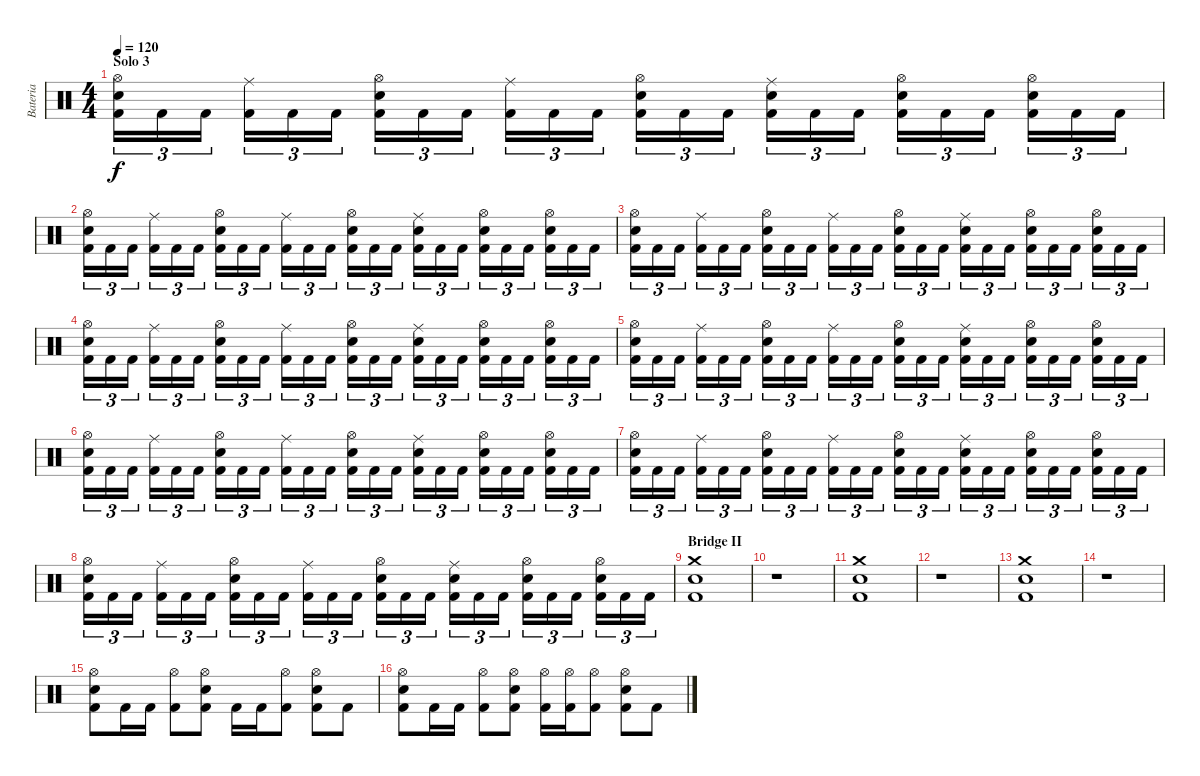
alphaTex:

\track ("Bateria" "Bateria") {instrument percussion}
\staff {score}
\articulation defaults
\ts (4 4)
\section ("" "Solo 3")
\tempo 120
\clef neutral
\ks c
("Hi-Hat (open)" "Snare (hit) 2" "Kick (hit) 2").16{tu (3 2) dy f} "Kick (hit) 2".16{tu (3 2)} "Kick (hit) 2".16{tu (3 2)} ("Ride (middle)" "Kick (hit) 2").16{tu (3 2)} "Kick (hit) 2".16{tu (3 2)} "Kick (hit) 2".16{tu (3 2)} ("Hi-Hat (open)" "Electric Snare (hit)" "Kick (hit) 2").16{tu (3 2)} "Kick (hit) 2".16{tu (3 2)} "Kick (hit) 2".16{tu (3 2)} ("Ride (middle)" "Kick (hit) 2").16{tu (3 2)} "Kick (hit) 2".16{tu (3 2)} "Kick (hit) 2".16{tu (3 2)} ("Hi-Hat (open)" "Snare (hit) 2" "Kick (hit) 2").16{tu (3 2)} "Kick (hit) 2".16{tu (3 2)} "Kick (hit) 2".16{tu (3 2)} ("Ride (middle)" "Snare (hit) 2" "Kick (hit) 2").16{tu (3 2)} "Kick (hit) 2".16{tu (3 2)} "Kick (hit) 2".16{tu (3 2)} ("Hi-Hat (open)" "Snare (hit) 2" "Kick (hit) 2").16{tu (3 2)} "Kick (hit) 2".16{tu (3 2)} "Kick (hit) 2".16{tu (3 2)} ("Hi-Hat (open)" "Snare (hit) 2" "Kick (hit) 2").16{tu (3 2)} "Kick (hit) 2".16{tu (3 2)} "Kick (hit) 2".16{tu (3 2)} |
("Hi-Hat (open)" "Snare (hit) 2" "Kick (hit) 2").16{tu (3 2)} "Kick (hit) 2".16{tu (3 2)} "Kick (hit) 2".16{tu (3 2)} ("Ride (middle)" "Kick (hit) 2").16{tu (3 2)} "Kick (hit) 2".16{tu (3 2)} "Kick (hit) 2".16{tu (3 2)} ("Hi-Hat (open)" "Electric Snare (hit)" "Kick (hit) 2").16{tu (3 2)} "Kick (hit) 2".16{tu (3 2)} "Kick (hit) 2".16{tu (3 2)} ("Ride (middle)" "Kick (hit) 2").16{tu (3 2)} "Kick (hit) 2".16{tu (3 2)} "Kick (hit) 2".16{tu (3 2)} ("Hi-Hat (open)" "Snare (hit) 2" "Kick (hit) 2").16{tu (3 2)} "Kick (hit) 2".16{tu (3 2)} "Kick (hit) 2".16{tu (3 2)} ("Ride (middle)" "Snare (hit) 2" "Kick (hit) 2").16{tu (3 2)} "Kick (hit) 2".16{tu (3 2)} "Kick (hit) 2".16{tu (3 2)} ("Hi-Hat (open)" "Snare (hit) 2" "Kick (hit) 2").16{tu (3 2)} "Kick (hit) 2".16{tu (3 2)} "Kick (hit) 2".16{tu (3 2)} ("Hi-Hat (open)" "Snare (hit) 2" "Kick (hit) 2").16{tu (3 2)} "Kick (hit) 2".16{tu (3 2)} "Kick (hit) 2".16{tu (3 2)} |
("Hi-Hat (open)" "Snare (hit) 2" "Kick (hit) 2").16{tu (3 2)} "Kick (hit) 2".16{tu (3 2)} "Kick (hit) 2".16{tu (3 2)} ("Ride (middle)" "Kick (hit) 2").16{tu (3 2)} "Kick (hit) 2".16{tu (3 2)} "Kick (hit) 2".16{tu (3 2)} ("Hi-Hat (open)" "Electric Snare (hit)" "Kick (hit) 2").16{tu (3 2)} "Kick (hit) 2".16{tu (3 2)} "Kick (hit) 2".16{tu (3 2)} ("Ride (middle)" "Kick (hit) 2").16{tu (3 2)} "Kick (hit) 2".16{tu (3 2)} "Kick (hit) 2".16{tu (3 2)} ("Hi-Hat (open)" "Snare (hit) 2" "Kick (hit) 2").16{tu (3 2)} "Kick (hit) 2".16{tu (3 2)} "Kick (hit) 2".16{tu (3 2)} ("Ride (middle)" "Snare (hit) 2" "Kick (hit) 2").16{tu (3 2)} "Kick (hit) 2".16{tu (3 2)} "Kick (hit) 2".16{tu (3 2)} ("Hi-Hat (open)" "Snare (hit) 2" "Kick (hit) 2").16{tu (3 2)} "Kick (hit) 2".16{tu (3 2)} "Kick (hit) 2".16{tu (3 2)} ("Hi-Hat (open)" "Snare (hit) 2" "Kick (hit) 2").16{tu (3 2)} "Kick (hit) 2".16{tu (3 2)} "Kick (hit) 2".16{tu (3 2)} |
("Hi-Hat (open)" "Snare (hit) 2" "Kick (hit) 2").16{tu (3 2)} "Kick (hit) 2".16{tu (3 2)} "Kick (hit) 2".16{tu (3 2)} ("Ride (middle)" "Kick (hit) 2").16{tu (3 2)} "Kick (hit) 2".16{tu (3 2)} "Kick (hit) 2".16{tu (3 2)} ("Hi-Hat (open)" "Electric Snare (hit)" "Kick (hit) 2").16{tu (3 2)} "Kick (hit) 2".16{tu (3 2)} "Kick (hit) 2".16{tu (3 2)} ("Ride (middle)" "Kick (hit) 2").16{tu (3 2)} "Kick (hit) 2".16{tu (3 2)} "Kick (hit) 2".16{tu (3 2)} ("Hi-Hat (open)" "Snare (hit) 2" "Kick (hit) 2").16{tu (3 2)} "Kick (hit) 2".16{tu (3 2)} "Kick (hit) 2".16{tu (3 2)} ("Ride (middle)" "Snare (hit) 2" "Kick (hit) 2").16{tu (3 2)} "Kick (hit) 2".16{tu (3 2)} "Kick (hit) 2".16{tu (3 2)} ("Hi-Hat (open)" "Snare (hit) 2" "Kick (hit) 2").16{tu (3 2)} "Kick (hit) 2".16{tu (3 2)} "Kick (hit) 2".16{tu (3 2)} ("Hi-Hat (open)" "Snare (hit) 2" "Kick (hit) 2").16{tu (3 2)} "Kick (hit) 2".16{tu (3 2)} "Kick (hit) 2".16{tu (3 2)} |
("Hi-Hat (open)" "Snare (hit) 2" "Kick (hit) 2").16{tu (3 2)} "Kick (hit) 2".16{tu (3 2)} "Kick (hit) 2".16{tu (3 2)} ("Ride (middle)" "Kick (hit) 2").16{tu (3 2)} "Kick (hit) 2".16{tu (3 2)} "Kick (hit) 2".16{tu (3 2)} ("Hi-Hat (open)" "Electric Snare (hit)" "Kick (hit) 2").16{tu (3 2)} "Kick (hit) 2".16{tu (3 2)} "Kick (hit) 2".16{tu (3 2)} ("Ride (middle)" "Kick (hit) 2").16{tu (3 2)} "Kick (hit) 2".16{tu (3 2)} "Kick (hit) 2".16{tu (3 2)} ("Hi-Hat (open)" "Snare (hit) 2" "Kick (hit) 2").16{tu (3 2)} "Kick (hit) 2".16{tu (3 2)} "Kick (hit) 2".16{tu (3 2)} ("Ride (middle)" "Snare (hit) 2" "Kick (hit) 2").16{tu (3 2)} "Kick (hit) 2".16{tu (3 2)} "Kick (hit) 2".16{tu (3 2)} ("Hi-Hat (open)" "Snare (hit) 2" "Kick (hit) 2").16{tu (3 2)} "Kick (hit) 2".16{tu (3 2)} "Kick (hit) 2".16{tu (3 2)} ("Hi-Hat (open)" "Snare (hit) 2" "Kick (hit) 2").16{tu (3 2)} "Kick (hit) 2".16{tu (3 2)} "Kick (hit) 2".16{tu (3 2)} |
("Hi-Hat (open)" "Snare (hit) 2" "Kick (hit) 2").16{tu (3 2)} "Kick (hit) 2".16{tu (3 2)} "Kick (hit) 2".16{tu (3 2)} ("Ride (middle)" "Kick (hit) 2").16{tu (3 2)} "Kick (hit) 2".16{tu (3 2)} "Kick (hit) 2".16{tu (3 2)} ("Hi-Hat (open)" "Electric Snare (hit)" "Kick (hit) 2").16{tu (3 2)} "Kick (hit) 2".16{tu (3 2)} "Kick (hit) 2".16{tu (3 2)} ("Ride (middle)" "Kick (hit) 2").16{tu (3 2)} "Kick (hit) 2".16{tu (3 2)} "Kick (hit) 2".16{tu (3 2)} ("Hi-Hat (open)" "Snare (hit) 2" "Kick (hit) 2").16{tu (3 2)} "Kick (hit) 2".16{tu (3 2)} "Kick (hit) 2".16{tu (3 2)} ("Ride (middle)" "Snare (hit) 2" "Kick (hit) 2").16{tu (3 2)} "Kick (hit) 2".16{tu (3 2)} "Kick (hit) 2".16{tu (3 2)} ("Hi-Hat (open)" "Snare (hit) 2" "Kick (hit) 2").16{tu (3 2)} "Kick (hit) 2".16{tu (3 2)} "Kick (hit) 2".16{tu (3 2)} ("Hi-Hat (open)" "Snare (hit) 2" "Kick (hit) 2").16{tu (3 2)} "Kick (hit) 2".16{tu (3 2)} "Kick (hit) 2".16{tu (3 2)} |
("Hi-Hat (open)" "Snare (hit) 2" "Kick (hit) 2").16{tu (3 2)} "Kick (hit) 2".16{tu (3 2)} "Kick (hit) 2".16{tu (3 2)} ("Ride (middle)" "Kick (hit) 2").16{tu (3 2)} "Kick (hit) 2".16{tu (3 2)} "Kick (hit) 2".16{tu (3 2)} ("Hi-Hat (open)" "Electric Snare (hit)" "Kick (hit) 2").16{tu (3 2)} "Kick (hit) 2".16{tu (3 2)} "Kick (hit) 2".16{tu (3 2)} ("Ride (middle)" "Kick (hit) 2").16{tu (3 2)} "Kick (hit) 2".16{tu (3 2)} "Kick (hit) 2".16{tu (3 2)} ("Hi-Hat (open)" "Snare (hit) 2" "Kick (hit) 2").16{tu (3 2)} "Kick (hit) 2".16{tu (3 2)} "Kick (hit) 2".16{tu (3 2)} ("Ride (middle)" "Snare (hit) 2" "Kick (hit) 2").16{tu (3 2)} "Kick (hit) 2".16{tu (3 2)} "Kick (hit) 2".16{tu (3 2)} ("Hi-Hat (open)" "Snare (hit) 2" "Kick (hit) 2").16{tu (3 2)} "Kick (hit) 2".16{tu (3 2)} "Kick (hit) 2".16{tu (3 2)} ("Hi-Hat (open)" "Snare (hit) 2" "Kick (hit) 2").16{tu (3 2)} "Kick (hit) 2".16{tu (3 2)} "Kick (hit) 2".16{tu (3 2)} |
("Hi-Hat (open)" "Snare (hit) 2" "Kick (hit) 2").16{tu (3 2)} "Kick (hit) 2".16{tu (3 2)} "Kick (hit) 2".16{tu (3 2)} ("Ride (middle)" "Kick (hit) 2").16{tu (3 2)} "Kick (hit) 2".16{tu (3 2)} "Kick (hit) 2".16{tu (3 2)} ("Hi-Hat (open)" "Electric Snare (hit)" "Kick (hit) 2").16{tu (3 2)} "Kick (hit) 2".16{tu (3 2)} "Kick (hit) 2".16{tu (3 2)} ("Ride (middle)" "Kick (hit) 2").16{tu (3 2)} "Kick (hit) 2".16{tu (3 2)} "Kick (hit) 2".16{tu (3 2)} ("Hi-Hat (open)" "Snare (hit) 2" "Kick (hit) 2").16{tu (3 2)} "Kick (hit) 2".16{tu (3 2)} "Kick (hit) 2".16{tu (3 2)} ("Ride (middle)" "Snare (hit) 2" "Kick (hit) 2").16{tu (3 2)} "Kick (hit) 2".16{tu (3 2)} "Kick (hit) 2".16{tu (3 2)} ("Hi-Hat (open)" "Snare (hit) 2" "Kick (hit) 2").16{tu (3 2)} "Kick (hit) 2".16{tu (3 2)} "Kick (hit) 2".16{tu (3 2)} ("Hi-Hat (open)" "Snare (hit) 2" "Kick (hit) 2").16{tu (3 2)} "Kick (hit) 2".16{tu (3 2)} "Kick (hit) 2".16{tu (3 2)} |
\section ("" "Bridge II")
("Crash medium (hit)" "Snare (hit) 2" "Kick (hit) 2").1 |
r.1 |
("Crash medium (hit)" "Snare (hit) 2" "Kick (hit) 2").1 |
r.1 |
("Crash medium (hit)" "Snare (hit) 2" "Kick (hit) 2").1 |
r.1 |
("Hi-Hat (open)" "Snare (hit) 2" "Kick (hit) 2").8 "Kick (hit) 2".16 "Kick (hit) 2".16 ("Hi-Hat (open)" "Kick (hit) 2").8 ("Hi-Hat (open)" "Snare (hit) 2" "Kick (hit) 2").8 "Kick (hit) 2".16 "Kick (hit) 2".16 ("Hi-Hat (open)" "Kick (hit) 2").8 ("Hi-Hat (open)" "Snare (hit) 2" "Kick (hit) 2").8 "Kick (hit) 2".8 |
("Hi-Hat (open)" "Snare (hit) 2" "Kick (hit) 2").8 "Kick (hit) 2".16 "Kick (hit) 2".16 ("Hi-Hat (open)" "Kick (hit) 2").8 ("Hi-Hat (open)" "Snare (hit) 2" "Kick (hit) 2").8 ("Hi-Hat (open)" "Kick (hit) 2").16 ("Hi-Hat (open)" "Kick (hit) 2").16 ("Hi-Hat (open)" "Kick (hit) 2").8 ("Hi-Hat (open)" "Snare (hit) 2" "Kick (hit) 2").8 "Kick (hit) 2".8
